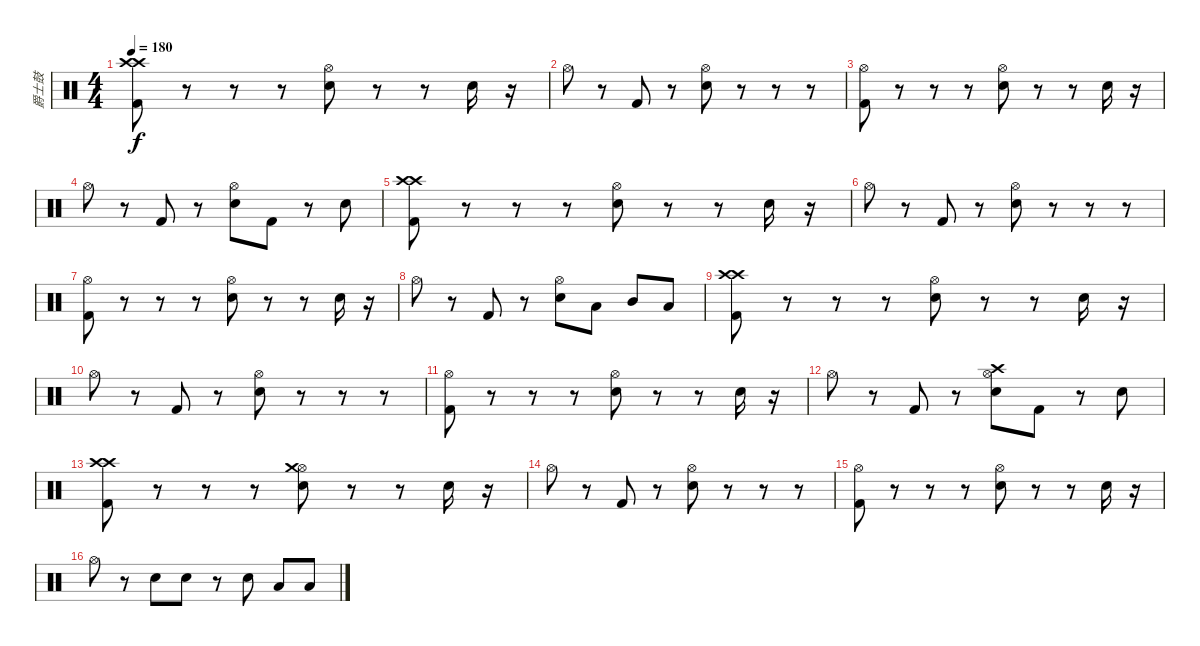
\track ("爵士鼓" "爵士鼓") {instrument percussion}
\staff {score}
\articulation defaults
\ts (4 4)
\tempo 180
\clef neutral
\ks c
("Crash high (hit)" "Kick (hit) 2" "Crash high (hit)").8{dy f} r.8 r.8 r.8 ("Hi-Hat (open)" "Snare (hit) 2").8 r.8 r.8 "Snare (hit) 2".16 r.16 |
"Hi-Hat (open)".8 r.8 "Kick (hit) 2".8 r.8 ("Snare (hit) 2" "Hi-Hat (open)").8 r.8 r.8 r.8 |
("Hi-Hat (open)" "Kick (hit) 2").8 r.8 r.8 r.8 ("Hi-Hat (open)" "Snare (hit) 2").8 r.8 r.8 "Snare (hit) 2".16 r.16 |
"Hi-Hat (open)".8 r.8 "Kick (hit) 2".8 r.8 ("Snare (hit) 2" "Hi-Hat (open)").8 "Kick (hit) 2".8 r.8 "Snare (hit) 2".8 |
("Crash high (hit)" "Kick (hit) 2" "Crash high (hit)").8 r.8 r.8 r.8 ("Hi-Hat (open)" "Snare (hit) 2").8 r.8 r.8 "Snare (hit) 2".16 r.16 |
"Hi-Hat (open)".8 r.8 "Kick (hit) 2".8 r.8 ("Snare (hit) 2" "Hi-Hat (open)").8 r.8 r.8 r.8 |
("Hi-Hat (open)" "Kick (hit) 2").8 r.8 r.8 r.8 ("Hi-Hat (open)" "Snare (hit) 2").8 r.8 r.8 "Snare (hit) 2".16 r.16 |
"Hi-Hat (open)".8 r.8 "Kick (hit) 2".8 r.8 ("Snare (hit) 2" "Hi-Hat (open)").8 "Low Tom (hit)".8 "Mid Tom (hit)".8 "Low Floor Tom (hit)".8 |
("Crash high (hit)" "Kick (hit) 2" "Crash high (hit)").8 r.8 r.8 r.8 ("Hi-Hat (open)" "Snare (hit) 2").8 r.8 r.8 "Snare (hit) 2".16 r.16 |
"Hi-Hat (open)".8 r.8 "Kick (hit) 2".8 r.8 ("Snare (hit) 2" "Hi-Hat (open)").8 r.8 r.8 r.8 |
("Hi-Hat (open)" "Kick (hit) 2").8 r.8 r.8 r.8 ("Hi-Hat (open)" "Snare (hit) 2").8 r.8 r.8 "Snare (hit) 2".16 r.16 |
"Hi-Hat (open)".8 r.8 "Kick (hit) 2".8 r.8 ("Snare (hit) 2" "Hi-Hat (open)" "Crash high (hit)").8 "Kick (hit) 2".8 r.8 "Snare (hit) 2".8 |
("Crash high (hit)" "Kick (hit) 2" "Crash high (hit)").8 r.8 r.8 r.8 ("Hi-Hat (open)" "Snare (hit) 2" "Crash medium (hit)").8 r.8 r.8 "Snare (hit) 2".16 r.16 |
"Hi-Hat (open)".8 r.8 "Kick (hit) 2".8 r.8 ("Snare (hit) 2" "Hi-Hat (open)").8 r.8 r.8 r.8 |
("Hi-Hat (open)" "Kick (hit) 2").8 r.8 r.8 r.8 ("Hi-Hat (open)" "Snare (hit) 2").8 r.8 r.8 "Snare (hit) 2".16 r.16 |
"Hi-Hat (open)".8 r.8 "Snare (hit) 2".8 "Snare (hit) 2".8 r.8 "Snare (hit) 2".8 "Low Tom (hit)".8 "Low Floor Tom (hit)".8
